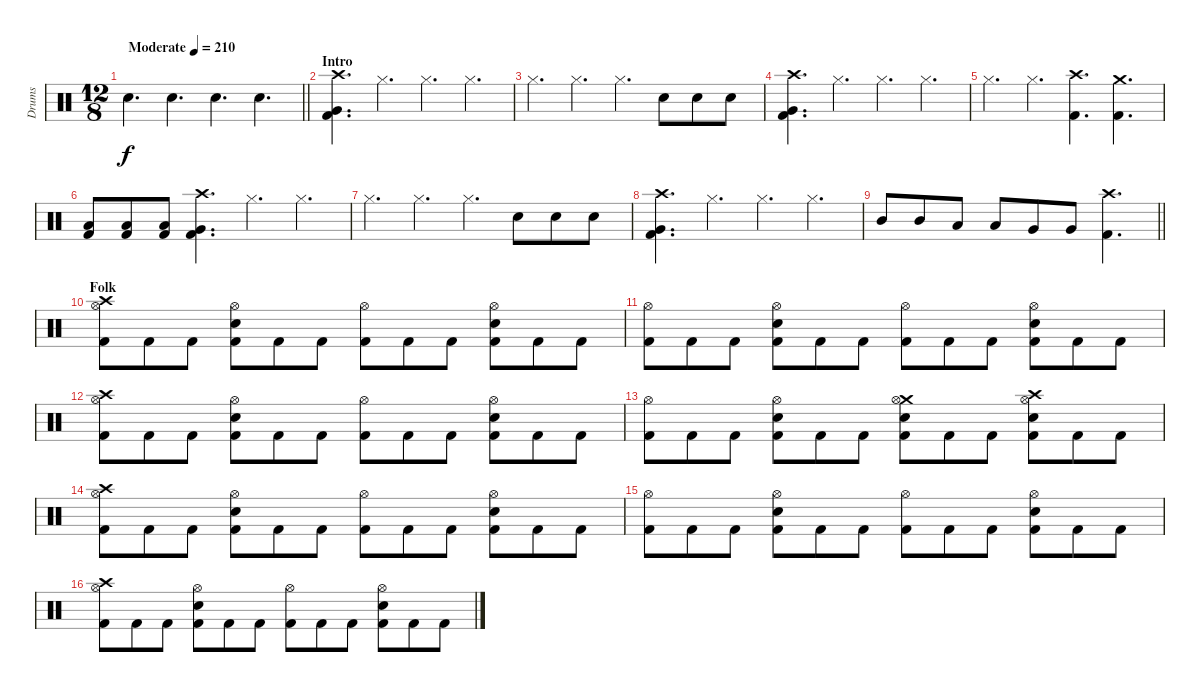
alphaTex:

\track ("Drums" "Drums") {instrument percussion}
\staff {score}
\articulation defaults
\ts (12 8)
\tempo (210 "Moderate")
\clef neutral
\barLineRight lightlight
\ks c "Snare (hit) 2".4{d dy f} "Snare (hit) 2".4{d} "Snare (hit) 2".4{d} "Snare (hit) 2".4{d}
|
\section ("" "Intro")
("Crash high (hit)" "Very Low Tom (hit)" "Kick (hit) 2").4{d} "Hi-Hat (closed)".4{d} "Hi-Hat (closed)".4{d} "Hi-Hat (closed)".4{d} |
"Hi-Hat (closed)".4{d} "Hi-Hat (closed)".4{d} "Hi-Hat (closed)".4{d} "Snare (hit) 2".8 "Snare (hit) 2".8 "Snare (hit) 2".8 |
("Crash high (hit)" "Very Low Tom (hit)" "Kick (hit) 2").4{d} "Hi-Hat (closed)".4{d} "Hi-Hat (closed)".4{d} "Hi-Hat (closed)".4{d} |
"Hi-Hat (closed)".4{d} "Hi-Hat (closed)".4{d} ("Crash high (hit)" "Kick (hit) 2").4{d} ("Crash medium (hit)" "Kick (hit) 2").4{d} |
("Low Floor Tom (hit)" "Kick (hit) 2").8 ("Low Floor Tom (hit)" "Kick (hit) 2").8 ("Low Floor Tom (hit)" "Kick (hit) 2").8 ("Crash high (hit)" "Very Low Tom (hit)" "Kick (hit) 2").4{d} "Hi-Hat (closed)".4{d} "Hi-Hat (closed)".4{d} |
"Hi-Hat (closed)".4{d} "Hi-Hat (closed)".4{d} "Hi-Hat (closed)".4{d} "Snare (hit) 2".8 "Snare (hit) 2".8 "Snare (hit) 2".8 |
("Crash high (hit)" "Very Low Tom (hit)" "Kick (hit) 2").4{d} "Hi-Hat (closed)".4{d} "Hi-Hat (closed)".4{d} "Hi-Hat (closed)".4{d} |
\barLineRight lightlight "Mid Tom (hit)".8 "Mid Tom (hit)".8 "Low Tom (hit)".8 "Low Tom (hit)".8 "Very Low Tom (hit)".8 "Very Low Tom (hit)".8
("Crash high (hit)" "Kick (hit) 2").4{d} |
\section ("" "Folk")
("Crash high (hit)" "Hi-Hat (open)" "Kick (hit) 2").8 "Kick (hit) 2".8 "Kick (hit) 2".8 ("Hi-Hat (open)" "Snare (hit) 2" "Kick (hit) 2").8 "Kick (hit) 2".8 "Kick (hit) 2".8 ("Hi-Hat (open)" "Kick (hit) 2").8 "Kick (hit) 2".8 "Kick (hit) 2".8 ("Hi-Hat (open)" "Snare (hit) 2" "Kick (hit) 2").8 "Kick (hit) 2".8 "Kick (hit) 2".8 |
("Hi-Hat (open)" "Kick (hit) 2").8 "Kick (hit) 2".8 "Kick (hit) 2".8 ("Hi-Hat (open)" "Snare (hit) 2" "Kick (hit) 2").8 "Kick (hit) 2".8 "Kick (hit) 2".8 ("Hi-Hat (open)" "Kick (hit) 2").8 "Kick (hit) 2".8 "Kick (hit) 2".8 ("Hi-Hat (open)" "Snare (hit) 2" "Kick (hit) 2").8 "Kick (hit) 2".8 "Kick (hit) 2".8 |
("Crash high (hit)" "Hi-Hat (open)" "Kick (hit) 2").8 "Kick (hit) 2".8 "Kick (hit) 2".8 ("Hi-Hat (open)" "Snare (hit) 2" "Kick (hit) 2").8 "Kick (hit) 2".8 "Kick (hit) 2".8 ("Hi-Hat (open)" "Kick (hit) 2").8 "Kick (hit) 2".8 "Kick (hit) 2".8 ("Hi-Hat (open)" "Snare (hit) 2" "Kick (hit) 2").8 "Kick (hit) 2".8 "Kick (hit) 2".8 |
("Hi-Hat (open)" "Kick (hit) 2").8 "Kick (hit) 2".8 "Kick (hit) 2".8 ("Hi-Hat (open)" "Snare (hit) 2" "Kick (hit) 2").8 "Kick (hit) 2".8 "Kick (hit) 2".8 ("Crash medium (hit)" "Hi-Hat (open)" "Snare (hit) 2" "Kick (hit) 2").8 "Kick (hit) 2".8 "Kick (hit) 2".8 ("Crash high (hit)" "Hi-Hat (open)" "Snare (hit) 2" "Kick (hit) 2").8 "Kick (hit) 2".8 "Kick (hit) 2".8 |
("Crash high (hit)" "Hi-Hat (open)" "Kick (hit) 2").8 "Kick (hit) 2".8 "Kick (hit) 2".8 ("Hi-Hat (open)" "Snare (hit) 2" "Kick (hit) 2").8 "Kick (hit) 2".8 "Kick (hit) 2".8 ("Hi-Hat (open)" "Kick (hit) 2").8 "Kick (hit) 2".8 "Kick (hit) 2".8 ("Hi-Hat (open)" "Snare (hit) 2" "Kick (hit) 2").8 "Kick (hit) 2".8 "Kick (hit) 2".8 |
("Hi-Hat (open)" "Kick (hit) 2").8 "Kick (hit) 2".8 "Kick (hit) 2".8 ("Hi-Hat (open)" "Snare (hit) 2" "Kick (hit) 2").8 "Kick (hit) 2".8 "Kick (hit) 2".8 ("Hi-Hat (open)" "Kick (hit) 2").8 "Kick (hit) 2".8 "Kick (hit) 2".8 ("Hi-Hat (open)" "Snare (hit) 2" "Kick (hit) 2").8 "Kick (hit) 2".8 "Kick (hit) 2".8 |
("Crash high (hit)" "Hi-Hat (open)" "Kick (hit) 2").8 "Kick (hit) 2".8 "Kick (hit) 2".8 ("Hi-Hat (open)" "Snare (hit) 2" "Kick (hit) 2").8 "Kick (hit) 2".8 "Kick (hit) 2".8 ("Hi-Hat (open)" "Kick (hit) 2").8 "Kick (hit) 2".8 "Kick (hit) 2".8 ("Hi-Hat (open)" "Snare (hit) 2" "Kick (hit) 2").8 "Kick (hit) 2".8 "Kick (hit) 2".8
